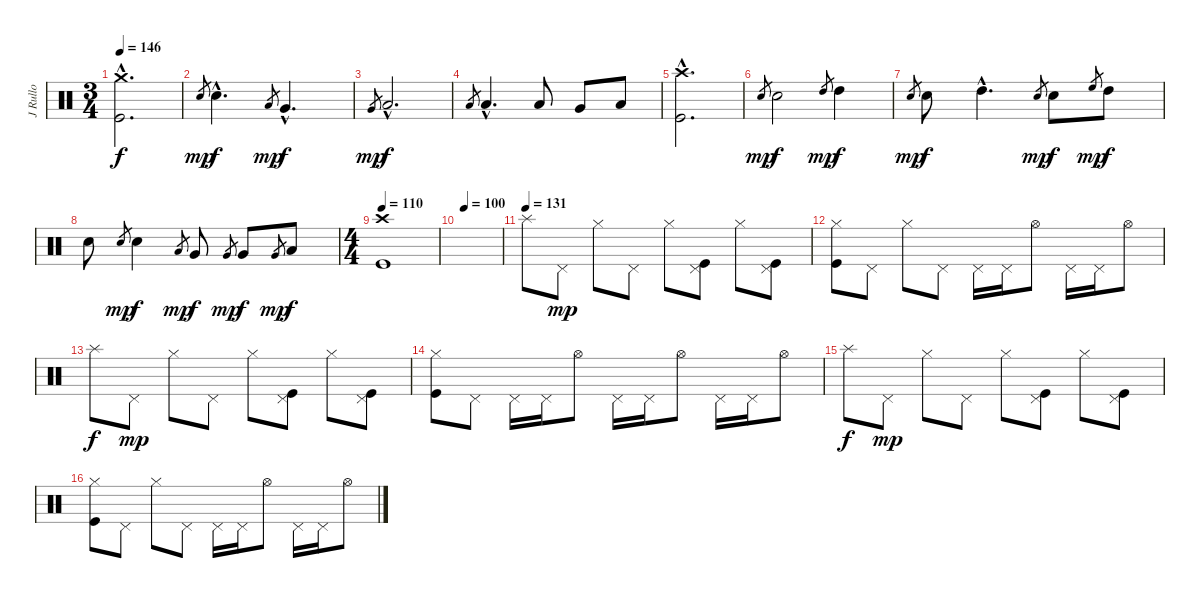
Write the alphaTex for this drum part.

\track ("J Rullo" "J Rullo") {instrument percussion}
\staff {score}
\articulation defaults
\ts (3 4)
\tempo 146
\clef neutral
\ks c
("Crash medium (hit)"{hac} "Kick (hit)"{hac}).2{d dy f} |
"Snare (hit) 2".8{gr dy mp} "Electric Snare (hit)"{hac}.4{d dy f} "Low Tom (hit)".8{gr dy mp} "Very Low Tom (hit)"{hac}.4{d dy f} |
"Very Low Tom (hit)".8{gr dy mp} "Low Floor Tom (hit)"{hac}.2{d dy f} |
"Low Floor Tom (hit)".8{gr} "Low Floor Tom (hit)"{hac}.4{d} "Low Floor Tom (hit)".8 "Very Low Tom (hit)".8 "Low Tom (hit)".8 |
("Crash high (hit)"{hac} "Kick (hit)"{hac}).2{d} |
"Snare (hit) 2".8{gr dy mp} "Electric Snare (hit)".2{dy f} "High Tom (hit)".8{gr dy mp} "High Tom (hit)".4{dy f} |
"Snare (hit) 2".8{gr dy mp} "Snare (hit) 2".8{dy f} "High Tom (hit)"{hac}.4{d} "Snare (hit) 2".8{gr dy mp} "Snare (hit) 2".8{dy f} "High Floor Tom (hit)".8{gr dy mp} "High Tom (hit)".8{dy f} |
"Snare (hit) 2".8 "Snare (hit) 2".8{gr dy mp} "Electric Snare (hit)".4{dy f} "Low Tom (hit)".8{gr dy mp} "Very Low Tom (hit)".8{dy f} "Very Low Tom (hit)".8{gr dy mp} "Very Low Tom (hit)".8{dy f} "Very Low Tom (hit)".8{gr dy mp} "Low Floor Tom (hit)".8{dy f} |
\ts (4 4)
\tempo 110
("Crash high (hit)" "Kick (hit)").1 |
\tempo (100 0.125)
|
\tempo (131)
"Splash (hit)".8 "Pedal Hi-Hat (hit)".8{dy mp} "Hi-Hat (closed)".8 "Pedal Hi-Hat (hit)".8 "Hi-Hat (closed)".8 ("Pedal Hi-Hat (hit)" "Kick (hit)").8 "Hi-Hat (closed)".8 ("Pedal Hi-Hat (hit)" "Kick (hit)").8 |
("Hi-Hat (closed)" "Kick (hit)").8 "Pedal Hi-Hat (hit)".8 "Hi-Hat (closed)".8 "Pedal Hi-Hat (hit)".8 "Pedal Hi-Hat (hit)".16 "Pedal Hi-Hat (hit)".16 "Hi-Hat (open)".8 "Pedal Hi-Hat (hit)".16 "Pedal Hi-Hat (hit)".16 "Hi-Hat (open)".8 |
"Splash (hit)".8{dy f} "Pedal Hi-Hat (hit)".8{dy mp} "Hi-Hat (closed)".8 "Pedal Hi-Hat (hit)".8 "Hi-Hat (closed)".8 ("Pedal Hi-Hat (hit)" "Kick (hit)").8 "Hi-Hat (closed)".8 ("Pedal Hi-Hat (hit)" "Kick (hit)").8 |
("Hi-Hat (closed)" "Kick (hit)").8 "Pedal Hi-Hat (hit)".8 "Pedal Hi-Hat (hit)".16 "Pedal Hi-Hat (hit)".16 "Hi-Hat (open)".8 "Pedal Hi-Hat (hit)".16 "Pedal Hi-Hat (hit)".16 "Hi-Hat (open)".8 "Pedal Hi-Hat (hit)".16 "Pedal Hi-Hat (hit)".16 "Hi-Hat (open)".8 |
"Splash (hit)".8{dy f} "Pedal Hi-Hat (hit)".8{dy mp} "Hi-Hat (closed)".8 "Pedal Hi-Hat (hit)".8 "Hi-Hat (closed)".8 ("Pedal Hi-Hat (hit)" "Kick (hit)").8 "Hi-Hat (closed)".8 ("Pedal Hi-Hat (hit)" "Kick (hit)").8 |
("Hi-Hat (closed)" "Kick (hit)").8 "Pedal Hi-Hat (hit)".8 "Hi-Hat (closed)".8 "Pedal Hi-Hat (hit)".8 "Pedal Hi-Hat (hit)".16 "Pedal Hi-Hat (hit)".16 "Hi-Hat (open)".8 "Pedal Hi-Hat (hit)".16 "Pedal Hi-Hat (hit)".16 "Hi-Hat (open)".8
